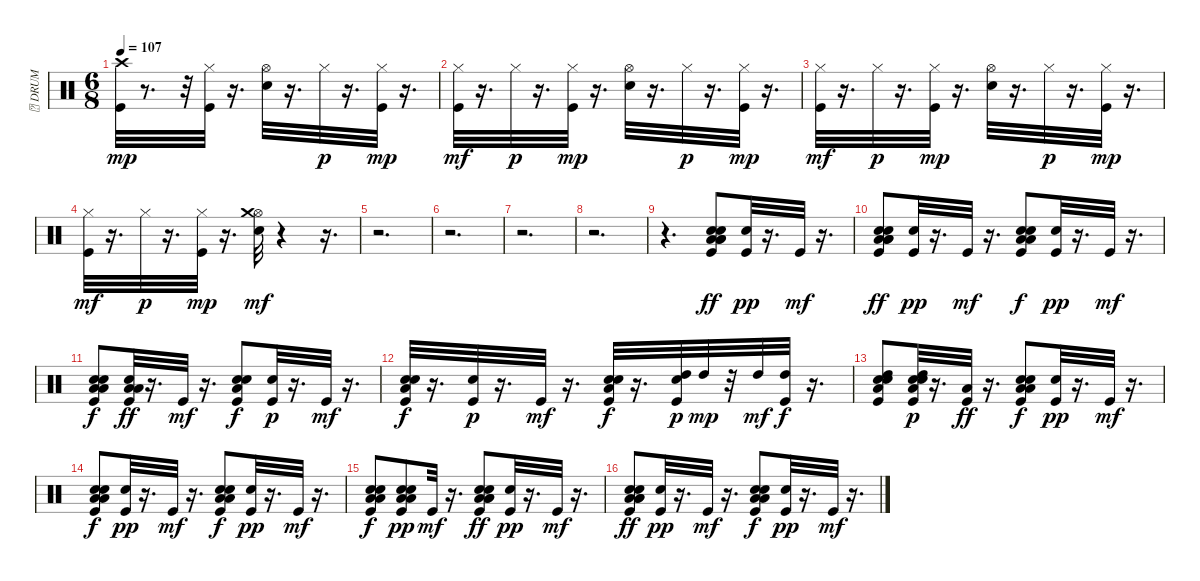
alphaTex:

\track ("\t DRUM" "\t DRUM") {instrument percussion}
\staff {score}
\articulation defaults
\ts (6 8)
\tempo 107
\clef neutral
\ks c
("Kick (hit)" "Crash high (hit)").32{dy mp} r.8{d} r.32 ("Kick (hit)" "Hi-Hat (closed)").32 r.16{d} ("Electric Snare (hit)" "Hi-Hat (open)").32 r.16{d} "Hi-Hat (closed)".32{dy p} r.16{d} ("Kick (hit)" "Hi-Hat (closed)").32{dy mp} r.16{d} |
("Kick (hit)" "Hi-Hat (closed)").32{dy mf} r.16{d} "Hi-Hat (closed)".32{dy p} r.16{d} ("Kick (hit)" "Hi-Hat (closed)").32{dy mp} r.16{d} ("Electric Snare (hit)" "Hi-Hat (open)").32 r.16{d} "Hi-Hat (closed)".32{dy p} r.16{d} ("Kick (hit)" "Hi-Hat (closed)").32{dy mp} r.16{d} |
("Kick (hit)" "Hi-Hat (closed)").32{dy mf} r.16{d} "Hi-Hat (closed)".32{dy p} r.16{d} ("Kick (hit)" "Hi-Hat (closed)").32{dy mp} r.16{d} ("Electric Snare (hit)" "Hi-Hat (open)").32 r.16{d} "Hi-Hat (closed)".32{dy p} r.16{d} ("Kick (hit)" "Hi-Hat (closed)").32{dy mp} r.16{d} |
("Kick (hit)" "Hi-Hat (closed)").32{dy mf} r.16{d} "Hi-Hat (closed)".32{dy p} r.16{d} ("Kick (hit)" "Hi-Hat (closed)").32{dy mp} r.16{d} ("Electric Snare (hit)" "Hi-Hat (open)" "Crash medium (hit)").32{dy mf} r.4 r.16{d} |
r.2{d} |
r.2{d} |
r.2{d} |
r.2{d} |
r.4{d} ("Kick (hit)" "Hand Clap (hit)" "Low Floor Tom (hit)" "Low Tom (hit)" "Hand Clap (hit)" "Low Floor Tom (hit)").8{dy ff} ("Kick (hit)" "Hand Clap (hit)").32{dy pp} r.16{d} "Kick (hit)".32{dy mf} r.16{d} |
("Kick (hit)" "Hand Clap (hit)" "Low Floor Tom (hit)" "Low Tom (hit)" "Hand Clap (hit)" "Low Floor Tom (hit)").8{dy ff} ("Kick (hit)" "Hand Clap (hit)").32{dy pp} r.16{d} "Kick (hit)".32{dy mf} r.16{d} ("Kick (hit)" "Hand Clap (hit)" "Low Floor Tom (hit)" "Low Tom (hit)" "Hand Clap (hit)").8{dy f} ("Kick (hit)" "Hand Clap (hit)").32{dy pp} r.16{d} "Kick (hit)".32{dy mf} r.16{d} |
("Kick (hit)" "Hand Clap (hit)" "Low Floor Tom (hit)" "Low Tom (hit)" "Hand Clap (hit)").8{dy f} ("Kick (hit)" "Hand Clap (hit)" "Low Floor Tom (hit)" "Low Tom (hit)").32{dy ff} r.16{d} "Kick (hit)".32{dy mf} r.16{d} ("Kick (hit)" "Hand Clap (hit)" "Low Floor Tom (hit)" "Hand Clap (hit)").8{dy f} ("Kick (hit)" "Hand Clap (hit)").32{dy p} r.16{d} "Kick (hit)".32{dy mf} r.16{d} |
("Kick (hit)" "Hand Clap (hit)" "Low Tom (hit)" "Hand Clap (hit)").32{dy f} r.16{d} ("Kick (hit)" "Hand Clap (hit)").32{dy p} r.16{d} "Kick (hit)".32{dy mf} r.16{d} ("Kick (hit)" "Hand Clap (hit)" "Low Floor Tom (hit)" "Hand Clap (hit)").32{dy f} r.16{d} ("Kick (hit)" "Hand Clap (hit)" "High Tom (hit)").32{dy p} "High Tom (hit)".32{dy mp} r.32 "High Tom (hit)".32{dy mf} ("Kick (hit)" "High Tom (hit)").32{dy f} r.16{d} |
("Kick (hit)" "Hand Clap (hit)" "Low Tom (hit)" "High Tom (hit)" "Hand Clap (hit)").8 ("Kick (hit)" "Hand Clap (hit)" "Low Tom (hit)" "High Tom (hit)" "Hand Clap (hit)").32{dy p} r.16{d} ("Kick (hit)" "Low Floor Tom (hit)").32{dy ff} r.16{d} ("Kick (hit)" "Hand Clap (hit)" "Low Floor Tom (hit)" "Low Tom (hit)" "Hand Clap (hit)").8{dy f} ("Kick (hit)" "Hand Clap (hit)").32{dy pp} r.16{d} "Kick (hit)".32{dy mf} r.16{d} |
("Kick (hit)" "Hand Clap (hit)" "Low Floor Tom (hit)" "Low Tom (hit)" "Hand Clap (hit)").8{dy f} ("Kick (hit)" "Hand Clap (hit)").32{dy pp} r.16{d} "Kick (hit)".32{dy mf} r.16{d} ("Kick (hit)" "Hand Clap (hit)" "Low Floor Tom (hit)" "Low Tom (hit)" "Hand Clap (hit)").8{dy f} ("Kick (hit)" "Hand Clap (hit)").32{dy pp} r.16{d} "Kick (hit)".32{dy mf} r.16{d} |
("Kick (hit)" "Hand Clap (hit)" "Low Floor Tom (hit)" "Low Tom (hit)" "Hand Clap (hit)").8{dy f} ("Kick (hit)" "Hand Clap (hit)" "Low Floor Tom (hit)" "Low Tom (hit)" "Hand Clap (hit)").8{dy pp} "Kick (hit)".32{dy mf} r.16{d} ("Kick (hit)" "Hand Clap (hit)" "Low Floor Tom (hit)" "Low Tom (hit)" "Hand Clap (hit)" "Low Floor Tom (hit)").8{dy ff} ("Kick (hit)" "Hand Clap (hit)").32{dy pp} r.16{d} "Kick (hit)".32{dy mf} r.16{d} |
("Kick (hit)" "Hand Clap (hit)" "Low Floor Tom (hit)" "Low Tom (hit)" "Hand Clap (hit)" "Low Floor Tom (hit)").8{dy ff} ("Kick (hit)" "Hand Clap (hit)").32{dy pp} r.16{d} "Kick (hit)".32{dy mf} r.16{d} ("Kick (hit)" "Hand Clap (hit)" "Low Floor Tom (hit)" "Low Tom (hit)" "Hand Clap (hit)").8{dy f} ("Kick (hit)" "Hand Clap (hit)").32{dy pp} r.16{d} "Kick (hit)".32{dy mf} r.16{d}
